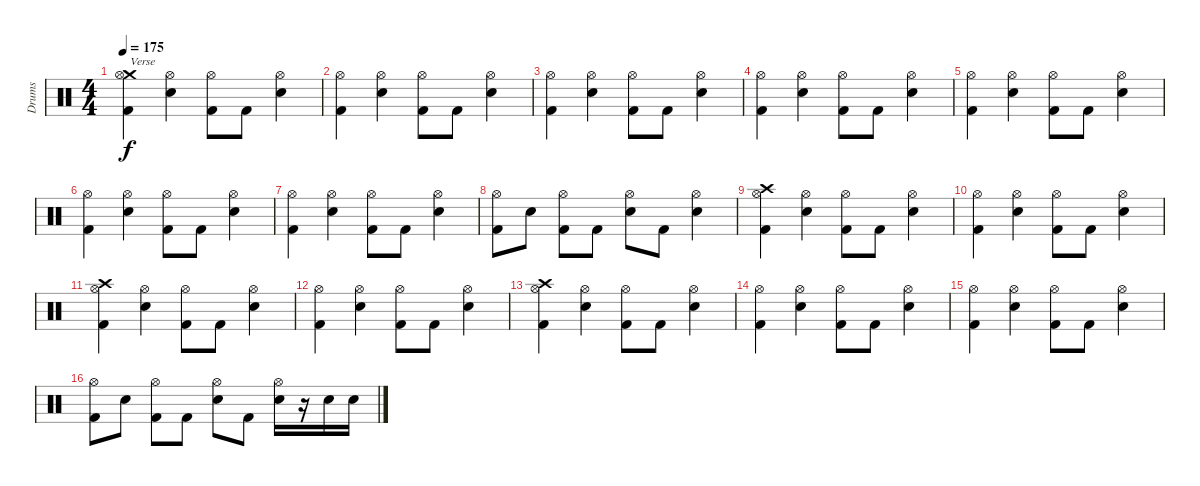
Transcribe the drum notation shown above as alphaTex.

\track ("Drums" "Drums") {instrument percussion}
\staff {score}
\articulation defaults
\ts (4 4)
\tempo 175
\clef neutral
\ks c
("Crash medium (hit)" "Hi-Hat (open)" "Kick (hit) 2").4{txt "Verse" dy f} ("Hi-Hat (open)" "Electric Snare (hit)").4 ("Hi-Hat (open)" "Kick (hit) 2").8 "Kick (hit) 2".8 ("Hi-Hat (open)" "Electric Snare (hit)").4 |
("Hi-Hat (open)" "Kick (hit) 2").4 ("Hi-Hat (open)" "Electric Snare (hit)").4 ("Hi-Hat (open)" "Kick (hit) 2").8 "Kick (hit) 2".8 ("Hi-Hat (open)" "Electric Snare (hit)").4 |
("Hi-Hat (open)" "Kick (hit) 2").4 ("Hi-Hat (open)" "Electric Snare (hit)").4 ("Hi-Hat (open)" "Kick (hit) 2").8 "Kick (hit) 2".8 ("Hi-Hat (open)" "Electric Snare (hit)").4 |
("Hi-Hat (open)" "Kick (hit) 2").4 ("Hi-Hat (open)" "Electric Snare (hit)").4 ("Hi-Hat (open)" "Kick (hit) 2").8 "Kick (hit) 2".8 ("Hi-Hat (open)" "Electric Snare (hit)").4 |
("Hi-Hat (open)" "Kick (hit) 2").4 ("Hi-Hat (open)" "Electric Snare (hit)").4 ("Hi-Hat (open)" "Kick (hit) 2").8 "Kick (hit) 2".8 ("Hi-Hat (open)" "Electric Snare (hit)").4 |
("Hi-Hat (open)" "Kick (hit) 2").4 ("Hi-Hat (open)" "Electric Snare (hit)").4 ("Hi-Hat (open)" "Kick (hit) 2").8 "Kick (hit) 2".8 ("Hi-Hat (open)" "Electric Snare (hit)").4 |
("Hi-Hat (open)" "Kick (hit) 2").4 ("Hi-Hat (open)" "Electric Snare (hit)").4 ("Hi-Hat (open)" "Kick (hit) 2").8 "Kick (hit) 2".8 ("Hi-Hat (open)" "Electric Snare (hit)").4 |
("Hi-Hat (open)" "Kick (hit) 2").8 "Electric Snare (hit)".8 ("Hi-Hat (open)" "Kick (hit) 2").8 "Kick (hit) 2".8 ("Hi-Hat (open)" "Electric Snare (hit)").8 "Kick (hit) 2".8 ("Hi-Hat (open)" "Electric Snare (hit)").4 |
("Crash high (hit)" "Hi-Hat (open)" "Kick (hit) 2").4 ("Hi-Hat (open)" "Electric Snare (hit)").4 ("Hi-Hat (open)" "Kick (hit) 2").8 "Kick (hit) 2".8 ("Hi-Hat (open)" "Electric Snare (hit)").4 |
("Hi-Hat (open)" "Kick (hit) 2").4 ("Hi-Hat (open)" "Electric Snare (hit)").4 ("Hi-Hat (open)" "Kick (hit) 2").8 "Kick (hit) 2".8 ("Hi-Hat (open)" "Electric Snare (hit)").4 |
("Crash high (hit)" "Hi-Hat (open)" "Kick (hit) 2").4 ("Hi-Hat (open)" "Electric Snare (hit)").4 ("Hi-Hat (open)" "Kick (hit) 2").8 "Kick (hit) 2".8 ("Hi-Hat (open)" "Electric Snare (hit)").4 |
("Hi-Hat (open)" "Kick (hit) 2").4 ("Hi-Hat (open)" "Electric Snare (hit)").4 ("Hi-Hat (open)" "Kick (hit) 2").8 "Kick (hit) 2".8 ("Hi-Hat (open)" "Electric Snare (hit)").4 |
("Crash high (hit)" "Hi-Hat (open)" "Kick (hit) 2").4 ("Hi-Hat (open)" "Electric Snare (hit)").4 ("Hi-Hat (open)" "Kick (hit) 2").8 "Kick (hit) 2".8 ("Hi-Hat (open)" "Electric Snare (hit)").4 |
("Hi-Hat (open)" "Kick (hit) 2").4 ("Hi-Hat (open)" "Electric Snare (hit)").4 ("Hi-Hat (open)" "Kick (hit) 2").8 "Kick (hit) 2".8 ("Hi-Hat (open)" "Electric Snare (hit)").4 |
("Hi-Hat (open)" "Kick (hit) 2").4 ("Hi-Hat (open)" "Electric Snare (hit)").4 ("Hi-Hat (open)" "Kick (hit) 2").8 "Kick (hit) 2".8 ("Hi-Hat (open)" "Electric Snare (hit)").4 |
("Hi-Hat (open)" "Kick (hit) 2").8 "Electric Snare (hit)".8 ("Hi-Hat (open)" "Kick (hit) 2").8 "Kick (hit) 2".8 ("Hi-Hat (open)" "Electric Snare (hit)").8 "Kick (hit) 2".8 ("Hi-Hat (open)" "Electric Snare (hit)").16 r.16 "Electric Snare (hit)".16 "Electric Snare (hit)".16
